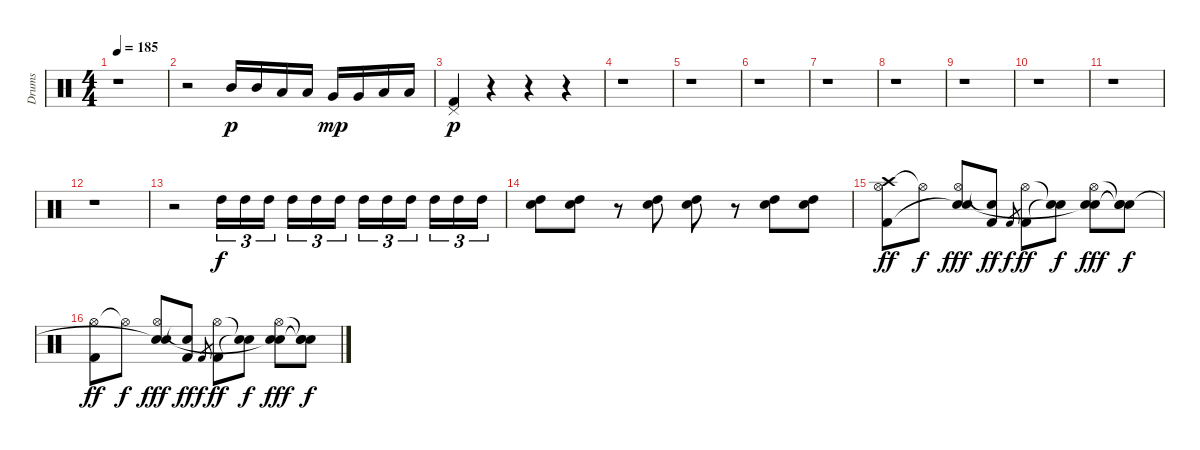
\track ("Drums" "Drums") {instrument percussion}
\staff {score}
\articulation defaults
\ts (4 4)
\tempo 185
\clef neutral
\ks c
r.1{dy f} |
r.2 "Mid Tom (hit)".16{dy p} "Mid Tom (hit)".16 "Low Tom (hit)".16 "Low Tom (hit)".16 "Very Low Tom (hit)".16{dy mp} "Very Low Tom (hit)".16 "Low Floor Tom (hit)".16 "Low Floor Tom (hit)".16 |
("Pedal Hi-Hat (hit)" "Kick (hit) 2").4{dy p} r.4 r.4 r.4 |
r.1 |
r.1 |
r.1 |
r.1 |
r.1 |
r.1 |
r.1 |
r.1 |
r.1 |
r.2 "High Tom (hit)".16{tu (3 2) dy f} "High Tom (hit)".16{tu (3 2)} "High Tom (hit)".16{tu (3 2) beam splitsecondary} "High Tom (hit)".16{tu (3 2)} "High Tom (hit)".16{tu (3 2)} "High Tom (hit)".16{tu (3 2)} "High Tom (hit)".16{tu (3 2)} "High Tom (hit)".16{tu (3 2)} "High Tom (hit)".16{tu (3 2) beam splitsecondary} "High Tom (hit)".16{tu (3 2)} "High Tom (hit)".16{tu (3 2)} "High Tom (hit)".16{tu (3 2)} |
("Electric Snare (hit)" "High Tom (hit)").8 ("Electric Snare (hit)" "High Tom (hit)").8 r.8 ("Electric Snare (hit)" "High Tom (hit)").8 ("Electric Snare (hit)" "High Tom (hit)").8 r.8 ("Electric Snare (hit)" "High Tom (hit)").8 ("Electric Snare (hit)" "High Tom (hit)").8 |
("Crash high (hit)" "Hi-Hat (open)" "Kick (hit) 2").8{dy ff} "Hi-Hat (open)"{t}.8{dy f} ("Hi-Hat (open)" "Electric Snare (hit)" "Snare (hit)"{t}).8{dy fff} ("Snare (hit)"{t} "Kick (hit) 2").8{dy ff} "Kick (hit) 2".8{gr dy f} ("Hi-Hat (open)" "Kick (hit) 2").8{dy ff} ("Snare (hit)"{t} "Snare (hit)"{t}).8{dy f} ("Hi-Hat (open)" "Electric Snare (hit)" "Snare (hit)"{t}).8{dy fff} ("Snare (hit)"{t} "Snare (hit)"{t} "Snare (hit)"{t}).8{dy f} |
("Hi-Hat (open)" "Kick (hit) 2").8{dy ff} "Hi-Hat (open)"{t}.8{dy f} ("Hi-Hat (open)" "Electric Snare (hit)" "Snare (hit)"{t}).8{dy fff} ("Snare (hit)"{t} "Kick (hit) 2").8{dy ff} "Kick (hit) 2".8{gr dy f} ("Hi-Hat (open)" "Kick (hit) 2").8{dy ff} ("Snare (hit)"{t} "Snare (hit)"{t}).8{dy f} ("Hi-Hat (open)" "Electric Snare (hit)" "Snare (hit)"{t}).8{dy fff} ("Snare (hit)"{t} "Snare (hit)"{t} "Snare (hit)"{t}).8{dy f}
